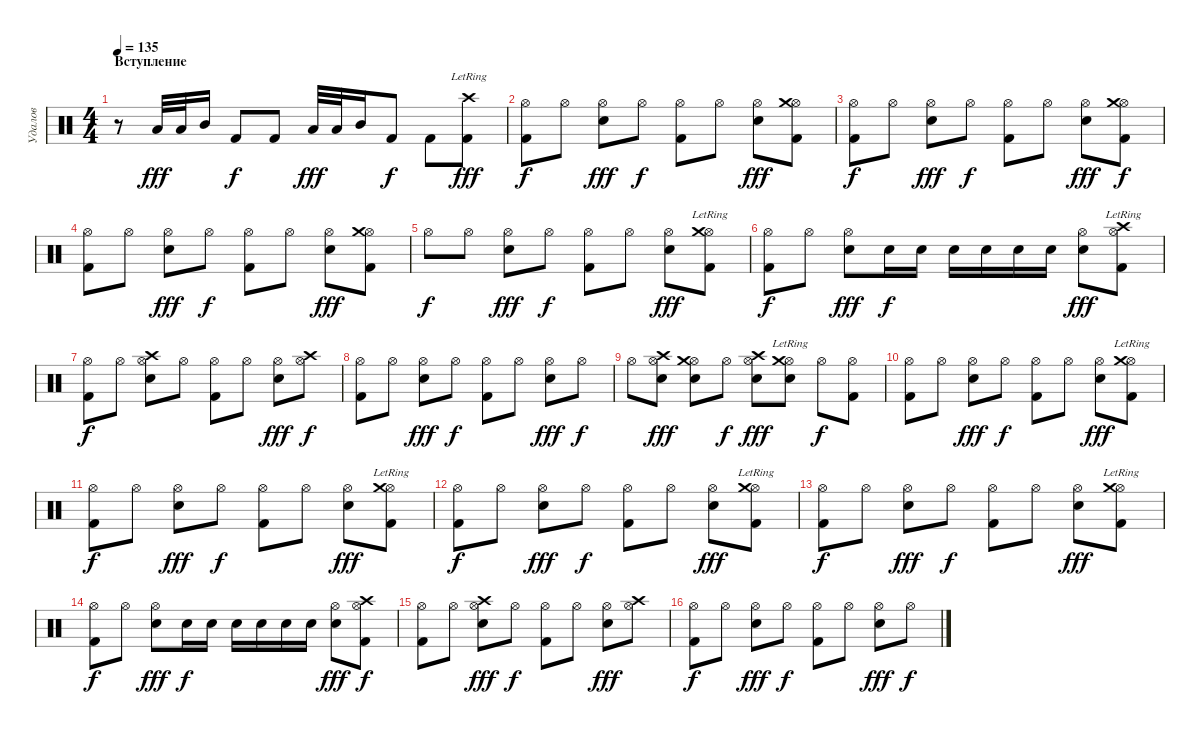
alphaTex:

\track ("Удалов" "Удалов") {instrument percussion}
\staff {score}
\articulation defaults
\ts (4 4)
\section ("" "Вступление")
\tempo 135
\clef neutral
\ks c
r.8{dy fff} "Low Floor Tom (hit)".32 "Low Tom (hit)".32 "Mid Tom (hit)".16 "Kick (hit) 2".8{dy f} "Kick (hit) 2".8 "Low Floor Tom (hit)".32{dy fff} "Low Tom (hit)".32 "Mid Tom (hit)".16 "Kick (hit) 2".8{dy f} "Kick (hit) 2".8 ("Crash high (hit)"{lr} "Kick (hit) 2").8{dy fff} |
("Hi-Hat (open)" "Kick (hit) 2").8{dy f} "Hi-Hat (open)".8 ("Hi-Hat (open)" "Snare (hit) 2").8{dy fff} "Hi-Hat (open)".8{dy f} ("Hi-Hat (open)" "Kick (hit) 2").8 "Hi-Hat (open)".8 ("Hi-Hat (open)" "Snare (hit) 2").8{dy fff} ("Hi-Hat (open)" "Crash medium (hit)" "Kick (hit) 2").8 |
("Hi-Hat (open)" "Kick (hit) 2").8{dy f} "Hi-Hat (open)".8 ("Hi-Hat (open)" "Snare (hit) 2").8{dy fff} "Hi-Hat (open)".8{dy f} ("Hi-Hat (open)" "Kick (hit) 2").8 "Hi-Hat (open)".8 ("Hi-Hat (open)" "Snare (hit) 2").8{dy fff} ("Hi-Hat (open)" "Crash medium (hit)" "Kick (hit) 2").8{dy f} |
("Hi-Hat (open)" "Kick (hit) 2").8 "Hi-Hat (open)".8 ("Hi-Hat (open)" "Snare (hit) 2").8{dy fff} "Hi-Hat (open)".8{dy f} ("Hi-Hat (open)" "Kick (hit) 2").8 "Hi-Hat (open)".8 ("Hi-Hat (open)" "Snare (hit) 2").8{dy fff} ("Hi-Hat (open)" "Crash medium (hit)" "Kick (hit) 2").8 |
"Hi-Hat (open)".8{dy f} "Hi-Hat (open)".8 ("Hi-Hat (open)" "Snare (hit) 2").8{dy fff} "Hi-Hat (open)".8{dy f} ("Hi-Hat (open)" "Kick (hit) 2").8 "Hi-Hat (open)".8 ("Hi-Hat (open)" "Snare (hit) 2").8{dy fff} ("Hi-Hat (open)" "Crash medium (hit)"{lr} "Kick (hit) 2").8 |
("Hi-Hat (open)" "Kick (hit) 2").8{dy f} "Hi-Hat (open)".8 ("Hi-Hat (open)" "Snare (hit) 2").8{dy fff} "Snare (hit) 2".16{dy f} "Snare (hit) 2".16 "Snare (hit) 2".16 "Snare (hit) 2".16 "Snare (hit) 2".16 "Snare (hit) 2".16 ("Hi-Hat (open)" "Snare (hit) 2").8{dy fff} ("Hi-Hat (open)" "Kick (hit) 2" "Crash high (hit)"{lr}).8 |
("Hi-Hat (open)" "Kick (hit) 2").8{dy f} "Hi-Hat (open)".8 ("Hi-Hat (open)" "Crash high (hit)" "Snare (hit) 2").8 "Hi-Hat (open)".8 ("Hi-Hat (open)" "Kick (hit) 2").8 "Hi-Hat (open)".8 ("Hi-Hat (open)" "Snare (hit) 2").8{dy fff} ("Hi-Hat (open)" "Crash high (hit)").8{dy f} |
("Hi-Hat (open)" "Kick (hit) 2").8 "Hi-Hat (open)".8 ("Hi-Hat (open)" "Snare (hit) 2").8{dy fff} "Hi-Hat (open)".8{dy f} ("Hi-Hat (open)" "Kick (hit) 2").8 "Hi-Hat (open)".8 ("Hi-Hat (open)" "Snare (hit) 2").8{dy fff} "Hi-Hat (open)".8{dy f} |
"Hi-Hat (open)".8 ("Hi-Hat (open)" "Crash high (hit)" "Snare (hit) 2").8{dy fff} ("Hi-Hat (open)" "Crash medium (hit)" "Snare (hit) 2").8 "Hi-Hat (open)".8{dy f} ("Hi-Hat (open)" "Snare (hit) 2" "Crash high (hit)").8{dy fff} ("Hi-Hat (open)" "Snare (hit) 2" "Crash medium (hit)"{lr}).8 "Hi-Hat (open)".8{dy f} ("Hi-Hat (open)" "Kick (hit) 2").8 |
("Hi-Hat (open)" "Kick (hit) 2").8 "Hi-Hat (open)".8 ("Hi-Hat (open)" "Snare (hit) 2").8{dy fff} "Hi-Hat (open)".8{dy f} ("Hi-Hat (open)" "Kick (hit) 2").8 "Hi-Hat (open)".8 ("Hi-Hat (open)" "Snare (hit) 2").8{dy fff} ("Hi-Hat (open)" "Crash medium (hit)"{lr} "Kick (hit) 2").8 |
("Hi-Hat (open)" "Kick (hit) 2").8{dy f} "Hi-Hat (open)".8 ("Hi-Hat (open)" "Snare (hit) 2").8{dy fff} "Hi-Hat (open)".8{dy f} ("Hi-Hat (open)" "Kick (hit) 2").8 "Hi-Hat (open)".8 ("Hi-Hat (open)" "Snare (hit) 2").8{dy fff} ("Hi-Hat (open)" "Crash medium (hit)"{lr} "Kick (hit) 2").8 |
("Hi-Hat (open)" "Kick (hit) 2").8{dy f} "Hi-Hat (open)".8 ("Hi-Hat (open)" "Snare (hit) 2").8{dy fff} "Hi-Hat (open)".8{dy f} ("Hi-Hat (open)" "Kick (hit) 2").8 "Hi-Hat (open)".8 ("Hi-Hat (open)" "Snare (hit) 2").8{dy fff} ("Hi-Hat (open)" "Crash medium (hit)"{lr} "Kick (hit) 2").8 |
("Hi-Hat (open)" "Kick (hit) 2").8{dy f} "Hi-Hat (open)".8 ("Hi-Hat (open)" "Snare (hit) 2").8{dy fff} "Hi-Hat (open)".8{dy f} ("Hi-Hat (open)" "Kick (hit) 2").8 "Hi-Hat (open)".8 ("Hi-Hat (open)" "Snare (hit) 2").8{dy fff} ("Hi-Hat (open)" "Crash medium (hit)"{lr} "Kick (hit) 2").8 |
("Hi-Hat (open)" "Kick (hit) 2").8{dy f} "Hi-Hat (open)".8 ("Hi-Hat (open)" "Snare (hit) 2").8{dy fff} "Snare (hit) 2".16{dy f} "Snare (hit) 2".16 "Snare (hit) 2".16 "Snare (hit) 2".16 "Snare (hit) 2".16 "Snare (hit) 2".16 ("Hi-Hat (open)" "Snare (hit) 2").8{dy fff} ("Hi-Hat (open)" "Kick (hit) 2" "Crash high (hit)").8{dy f} |
("Hi-Hat (open)" "Kick (hit) 2").8 "Hi-Hat (open)".8 ("Hi-Hat (open)" "Crash high (hit)" "Snare (hit) 2").8{dy fff} "Hi-Hat (open)".8{dy f} ("Hi-Hat (open)" "Kick (hit) 2").8 "Hi-Hat (open)".8 ("Hi-Hat (open)" "Snare (hit) 2").8{dy fff} ("Hi-Hat (open)" "Crash high (hit)").8 |
("Hi-Hat (open)" "Kick (hit) 2").8{dy f} "Hi-Hat (open)".8 ("Hi-Hat (open)" "Snare (hit) 2").8{dy fff} "Hi-Hat (open)".8{dy f} ("Hi-Hat (open)" "Kick (hit) 2").8 "Hi-Hat (open)".8 ("Hi-Hat (open)" "Snare (hit) 2").8{dy fff} "Hi-Hat (open)".8{dy f}
